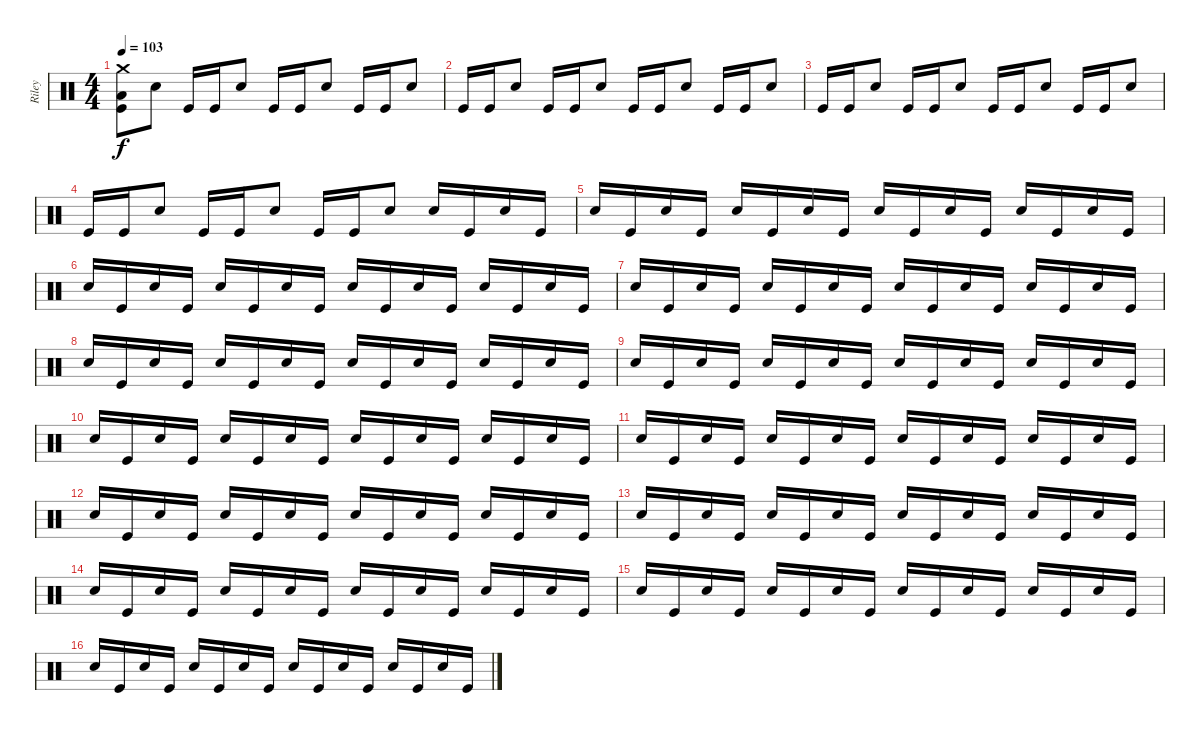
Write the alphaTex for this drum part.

\track ("Riley" "Riley") {instrument percussion}
\staff {score}
\articulation defaults
\ts (4 4)
\tempo 103
\clef neutral
\ks c
("Crash medium (hit)" "Low Floor Tom (hit)" "Kick (hit)").8{dy f} "Electric Snare (hit)".8 "Kick (hit)".16 "Kick (hit)".16 "Electric Snare (hit)".8 "Kick (hit)".16 "Kick (hit)".16 "Electric Snare (hit)".8 "Kick (hit)".16 "Kick (hit)".16 "Electric Snare (hit)".8 |
"Kick (hit)".16 "Kick (hit)".16 "Electric Snare (hit)".8 "Kick (hit)".16 "Kick (hit)".16 "Electric Snare (hit)".8 "Kick (hit)".16 "Kick (hit)".16 "Electric Snare (hit)".8 "Kick (hit)".16 "Kick (hit)".16 "Electric Snare (hit)".8 |
"Kick (hit)".16 "Kick (hit)".16 "Electric Snare (hit)".8 "Kick (hit)".16 "Kick (hit)".16 "Electric Snare (hit)".8 "Kick (hit)".16 "Kick (hit)".16 "Electric Snare (hit)".8 "Kick (hit)".16 "Kick (hit)".16 "Electric Snare (hit)".8 |
"Kick (hit)".16 "Kick (hit)".16 "Electric Snare (hit)".8 "Kick (hit)".16 "Kick (hit)".16 "Electric Snare (hit)".8 "Kick (hit)".16 "Kick (hit)".16 "Electric Snare (hit)".8 "Electric Snare (hit)".16 "Kick (hit)".16 "Electric Snare (hit)".16 "Kick (hit)".16 |
"Electric Snare (hit)".16 "Kick (hit)".16 "Electric Snare (hit)".16 "Kick (hit)".16 "Electric Snare (hit)".16 "Kick (hit)".16 "Electric Snare (hit)".16 "Kick (hit)".16 "Electric Snare (hit)".16 "Kick (hit)".16 "Electric Snare (hit)".16 "Kick (hit)".16 "Electric Snare (hit)".16 "Kick (hit)".16 "Electric Snare (hit)".16 "Kick (hit)".16 |
"Electric Snare (hit)".16 "Kick (hit)".16 "Electric Snare (hit)".16 "Kick (hit)".16 "Electric Snare (hit)".16 "Kick (hit)".16 "Electric Snare (hit)".16 "Kick (hit)".16 "Electric Snare (hit)".16 "Kick (hit)".16 "Electric Snare (hit)".16 "Kick (hit)".16 "Electric Snare (hit)".16 "Kick (hit)".16 "Electric Snare (hit)".16 "Kick (hit)".16 |
"Electric Snare (hit)".16{volume 12} "Kick (hit)".16 "Electric Snare (hit)".16 "Kick (hit)".16 "Electric Snare (hit)".16 "Kick (hit)".16 "Electric Snare (hit)".16 "Kick (hit)".16 "Electric Snare (hit)".16 "Kick (hit)".16 "Electric Snare (hit)".16 "Kick (hit)".16 "Electric Snare (hit)".16 "Kick (hit)".16 "Electric Snare (hit)".16 "Kick (hit)".16 |
"Electric Snare (hit)".16{volume 11} "Kick (hit)".16 "Electric Snare (hit)".16 "Kick (hit)".16 "Electric Snare (hit)".16 "Kick (hit)".16 "Electric Snare (hit)".16 "Kick (hit)".16 "Electric Snare (hit)".16 "Kick (hit)".16 "Electric Snare (hit)".16 "Kick (hit)".16 "Electric Snare (hit)".16 "Kick (hit)".16 "Electric Snare (hit)".16 "Kick (hit)".16 |
"Electric Snare (hit)".16{volume 10} "Kick (hit)".16 "Electric Snare (hit)".16 "Kick (hit)".16 "Electric Snare (hit)".16 "Kick (hit)".16 "Electric Snare (hit)".16 "Kick (hit)".16 "Electric Snare (hit)".16 "Kick (hit)".16 "Electric Snare (hit)".16 "Kick (hit)".16 "Electric Snare (hit)".16 "Kick (hit)".16 "Electric Snare (hit)".16 "Kick (hit)".16 |
"Electric Snare (hit)".16{volume 9} "Kick (hit)".16 "Electric Snare (hit)".16 "Kick (hit)".16 "Electric Snare (hit)".16 "Kick (hit)".16 "Electric Snare (hit)".16 "Kick (hit)".16 "Electric Snare (hit)".16 "Kick (hit)".16 "Electric Snare (hit)".16 "Kick (hit)".16 "Electric Snare (hit)".16 "Kick (hit)".16 "Electric Snare (hit)".16 "Kick (hit)".16 |
"Electric Snare (hit)".16{volume 8} "Kick (hit)".16 "Electric Snare (hit)".16 "Kick (hit)".16 "Electric Snare (hit)".16 "Kick (hit)".16 "Electric Snare (hit)".16 "Kick (hit)".16 "Electric Snare (hit)".16 "Kick (hit)".16 "Electric Snare (hit)".16 "Kick (hit)".16 "Electric Snare (hit)".16 "Kick (hit)".16 "Electric Snare (hit)".16 "Kick (hit)".16 |
"Electric Snare (hit)".16{volume 7} "Kick (hit)".16 "Electric Snare (hit)".16 "Kick (hit)".16 "Electric Snare (hit)".16 "Kick (hit)".16 "Electric Snare (hit)".16 "Kick (hit)".16 "Electric Snare (hit)".16 "Kick (hit)".16 "Electric Snare (hit)".16 "Kick (hit)".16 "Electric Snare (hit)".16 "Kick (hit)".16 "Electric Snare (hit)".16 "Kick (hit)".16 |
"Electric Snare (hit)".16{volume 6} "Kick (hit)".16 "Electric Snare (hit)".16 "Kick (hit)".16 "Electric Snare (hit)".16 "Kick (hit)".16 "Electric Snare (hit)".16 "Kick (hit)".16 "Electric Snare (hit)".16 "Kick (hit)".16 "Electric Snare (hit)".16 "Kick (hit)".16 "Electric Snare (hit)".16 "Kick (hit)".16 "Electric Snare (hit)".16 "Kick (hit)".16 |
"Electric Snare (hit)".16{volume 5} "Kick (hit)".16 "Electric Snare (hit)".16 "Kick (hit)".16 "Electric Snare (hit)".16 "Kick (hit)".16 "Electric Snare (hit)".16 "Kick (hit)".16 "Electric Snare (hit)".16 "Kick (hit)".16 "Electric Snare (hit)".16 "Kick (hit)".16 "Electric Snare (hit)".16 "Kick (hit)".16 "Electric Snare (hit)".16 "Kick (hit)".16 |
"Electric Snare (hit)".16{volume 4} "Kick (hit)".16 "Electric Snare (hit)".16 "Kick (hit)".16 "Electric Snare (hit)".16 "Kick (hit)".16 "Electric Snare (hit)".16 "Kick (hit)".16 "Electric Snare (hit)".16 "Kick (hit)".16 "Electric Snare (hit)".16 "Kick (hit)".16 "Electric Snare (hit)".16 "Kick (hit)".16 "Electric Snare (hit)".16 "Kick (hit)".16 |
"Electric Snare (hit)".16{volume 3} "Kick (hit)".16 "Electric Snare (hit)".16 "Kick (hit)".16 "Electric Snare (hit)".16 "Kick (hit)".16 "Electric Snare (hit)".16 "Kick (hit)".16 "Electric Snare (hit)".16 "Kick (hit)".16 "Electric Snare (hit)".16 "Kick (hit)".16 "Electric Snare (hit)".16 "Kick (hit)".16 "Electric Snare (hit)".16 "Kick (hit)".16
